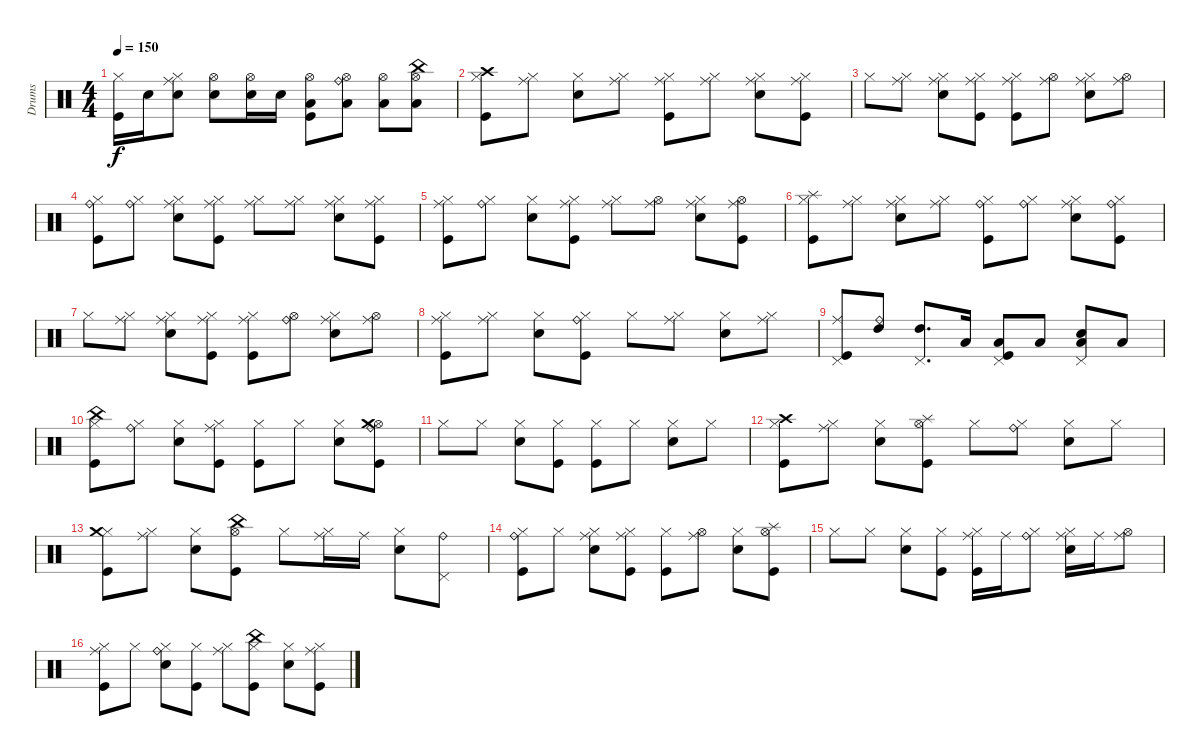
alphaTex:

\track ("Drums" "Drums") {instrument percussion}
\staff {score}
\articulation defaults
\ts (4 4)
\tempo 150
\clef neutral
\ks c
("Kick (hit)" "Hi-Hat (closed)").16{dy f} "Snare (hit) 2".16 ("Ride (middle)" "Snare (hit) 2" "Hi-Hat (closed)").8 ("Snare (hit) 2" "Hi-Hat (open)").8 ("Snare (hit) 2" "Hi-Hat (open)").16 "Snare (hit) 2".16 ("Kick (hit)" "Low Tom (hit)" "Hi-Hat (open)").8 ("Low Tom (hit)" "Hi-Hat (open)" "Ride (bell)").8 ("Low Floor Tom (hit)" "Hi-Hat (open)").8 ("Low Floor Tom (hit)" "Hi-Hat (open)" "China (hit)").8 |
("Hi-Hat (closed)" "Crash high (hit)" "Kick (hit)").8 ("Hi-Hat (closed)" "Ride (middle)").8 ("Snare (hit) 2" "Hi-Hat (closed)").8 ("Hi-Hat (closed)" "Ride (middle)").8 ("Kick (hit)" "Hi-Hat (closed)" "Ride (middle)").8 ("Hi-Hat (closed)" "Ride (middle)").8 ("Snare (hit) 2" "Hi-Hat (closed)" "Ride (middle)").8 ("Hi-Hat (closed)" "Ride (middle)" "Kick (hit)").8 |
"Hi-Hat (closed)".8 ("Hi-Hat (closed)" "Ride (middle)").8 ("Hi-Hat (closed)" "Ride (middle)" "Snare (hit) 2").8 ("Ride (middle)" "Kick (hit)" "Hi-Hat (closed)").8 ("Kick (hit)" "Hi-Hat (closed)" "Ride (middle)").8 ("Hi-Hat (open)" "Ride (middle)").8 ("Hi-Hat (closed)" "Ride (middle)" "Snare (hit) 2").8 ("Hi-Hat (open)" "Ride (middle)").8 |
("Ride (bell)" "Kick (hit)" "Hi-Hat (closed)").8 ("Hi-Hat (closed)" "Ride (bell)").8 ("Snare (hit) 2" "Hi-Hat (closed)" "Ride (middle)").8 ("Kick (hit)" "Hi-Hat (closed)" "Ride (middle)").8 ("Hi-Hat (closed)" "Ride (middle)").8 ("Hi-Hat (closed)" "Ride (middle)").8 ("Ride (middle)" "Snare (hit) 2" "Hi-Hat (closed)").8 ("Hi-Hat (closed)" "Ride (middle)" "Kick (hit)").8 |
("Kick (hit)" "Hi-Hat (closed)" "Ride (middle)").8 ("Hi-Hat (closed)" "Ride (bell)").8 ("Snare (hit) 2" "Hi-Hat (closed)").8 ("Ride (middle)" "Kick (hit)" "Hi-Hat (closed)").8 ("Hi-Hat (closed)" "Ride (middle)").8 ("Hi-Hat (open)" "Ride (middle)").8 ("Ride (middle)" "Snare (hit) 2" "Hi-Hat (closed)").8 ("Kick (hit)" "Hi-Hat (open)" "Ride (middle)").8 |
("Kick (hit)" "Hi-Hat (closed)" "Splash (hit)").8 ("Hi-Hat (closed)" "Ride (middle)").8 ("Snare (hit) 2" "Hi-Hat (closed)" "Ride (middle)").8 ("Hi-Hat (closed)" "Ride (middle)").8 ("Hi-Hat (closed)" "Ride (bell)" "Kick (hit)").8 ("Hi-Hat (closed)" "Ride (bell)").8 ("Ride (middle)" "Snare (hit) 2" "Hi-Hat (closed)").8 ("Kick (hit)" "Hi-Hat (closed)" "Ride (bell)").8 |
"Hi-Hat (closed)".8 ("Hi-Hat (closed)" "Ride (middle)").8 ("Snare (hit) 2" "Hi-Hat (closed)" "Ride (middle)").8 ("Kick (hit)" "Hi-Hat (closed)" "Ride (middle)").8 ("Kick (hit)" "Hi-Hat (closed)" "Ride (middle)").8 ("Hi-Hat (open)" "Ride (bell)").8 ("Snare (hit) 2" "Hi-Hat (closed)" "Ride (middle)").8 ("Hi-Hat (open)" "Ride (middle)").8 |
("Kick (hit)" "Hi-Hat (closed)" "Ride (middle)").8 ("Hi-Hat (closed)" "Ride (middle)").8 ("Snare (hit) 2" "Hi-Hat (closed)").8 ("Kick (hit)" "Hi-Hat (closed)" "Ride (bell)").8 "Hi-Hat (closed)".8 ("Hi-Hat (closed)" "Ride (middle)").8 ("Snare (hit) 2" "Hi-Hat (closed)").8 ("Hi-Hat (closed)" "Ride (middle)").8 |
("Kick (hit)" "Pedal Hi-Hat (hit)" "Ride (middle)").8 ("High Tom (hit)" "Ride (bell)").8 ("Pedal Hi-Hat (hit)" "High Tom (hit)").8{d} "Low Tom (hit)".16 ("Kick (hit)" "Pedal Hi-Hat (hit)" "Low Tom (hit)").8 "Low Floor Tom (hit)".8 ("Pedal Hi-Hat (hit)" "Snare (hit) 2" "Low Floor Tom (hit)").8 "Low Floor Tom (hit)".8 |
("Kick (hit)" "Hi-Hat (closed)" "China (hit)").8 ("Hi-Hat (closed)" "Ride (bell)").8 ("Snare (hit) 2" "Hi-Hat (closed)").8 ("Kick (hit)" "Hi-Hat (closed)" "Ride (middle)").8 ("Kick (hit)" "Hi-Hat (closed)").8 "Hi-Hat (closed)".8 ("Snare (hit) 2" "Hi-Hat (closed)").8 ("Kick (hit)" "Hi-Hat (open)" "Ride (bell)" "Crash medium (hit)").8 |
"Hi-Hat (closed)".8 "Hi-Hat (closed)".8 ("Snare (hit) 2" "Hi-Hat (closed)").8 ("Kick (hit)" "Hi-Hat (closed)").8 ("Kick (hit)" "Hi-Hat (closed)").8 "Hi-Hat (closed)".8 ("Snare (hit) 2" "Hi-Hat (closed)").8 "Hi-Hat (closed)".8 |
("Kick (hit)" "Hi-Hat (closed)" "Crash high (hit)").8 ("Hi-Hat (closed)" "Ride (middle)").8 ("Snare (hit) 2" "Hi-Hat (closed)").8 ("Kick (hit)" "Hi-Hat (open)" "Splash (hit)").8 "Hi-Hat (closed)".8 ("Hi-Hat (closed)" "Ride (bell)").8 ("Snare (hit) 2" "Hi-Hat (closed)").8 "Hi-Hat (closed)".8 |
("Kick (hit)" "Hi-Hat (closed)" "Crash medium (hit)").8 ("Hi-Hat (closed)" "Ride (middle)").8 ("Snare (hit) 2" "Hi-Hat (closed)").8 ("Hi-Hat (open)" "China (hit)" "Kick (hit)").8 "Hi-Hat (closed)".8 ("Hi-Hat (closed)" "Ride (middle)").16 "Ride (middle)".16 ("Snare (hit) 2" "Hi-Hat (closed)").8 ("Pedal Hi-Hat (hit)" "Ride (bell)").8 |
("Kick (hit)" "Hi-Hat (closed)" "Ride (bell)").8 "Hi-Hat (closed)".8 ("Snare (hit) 2" "Hi-Hat (closed)" "Ride (middle)").8 ("Kick (hit)" "Hi-Hat (closed)" "Ride (middle)").8 ("Kick (hit)" "Hi-Hat (closed)").8 ("Hi-Hat (open)" "Ride (middle)").8 ("Snare (hit) 2" "Hi-Hat (closed)").8 ("Kick (hit)" "Hi-Hat (open)" "Splash (hit)").8 |
"Hi-Hat (closed)".8 "Hi-Hat (closed)".8 ("Snare (hit) 2" "Hi-Hat (closed)").8 ("Kick (hit)" "Hi-Hat (closed)").8 ("Kick (hit)" "Hi-Hat (closed)" "Ride (middle)").16 "Ride (middle)".16 ("Hi-Hat (closed)" "Ride (bell)").8 ("Snare (hit) 2" "Hi-Hat (closed)" "Ride (middle)").16 "Ride (middle)".16 ("Hi-Hat (open)" "Ride (middle)").8 |
("Ride (middle)" "Kick (hit)" "Hi-Hat (closed)").8 "Hi-Hat (closed)".8 ("Snare (hit) 2" "Hi-Hat (closed)" "Ride (bell)").8 ("Kick (hit)" "Hi-Hat (closed)").8 ("Hi-Hat (closed)" "Ride (middle)").8 ("Kick (hit)" "Hi-Hat (closed)" "China (hit)").8 ("Snare (hit) 2" "Hi-Hat (closed)").8 ("Ride (middle)" "Kick (hit)" "Hi-Hat (closed)").8
